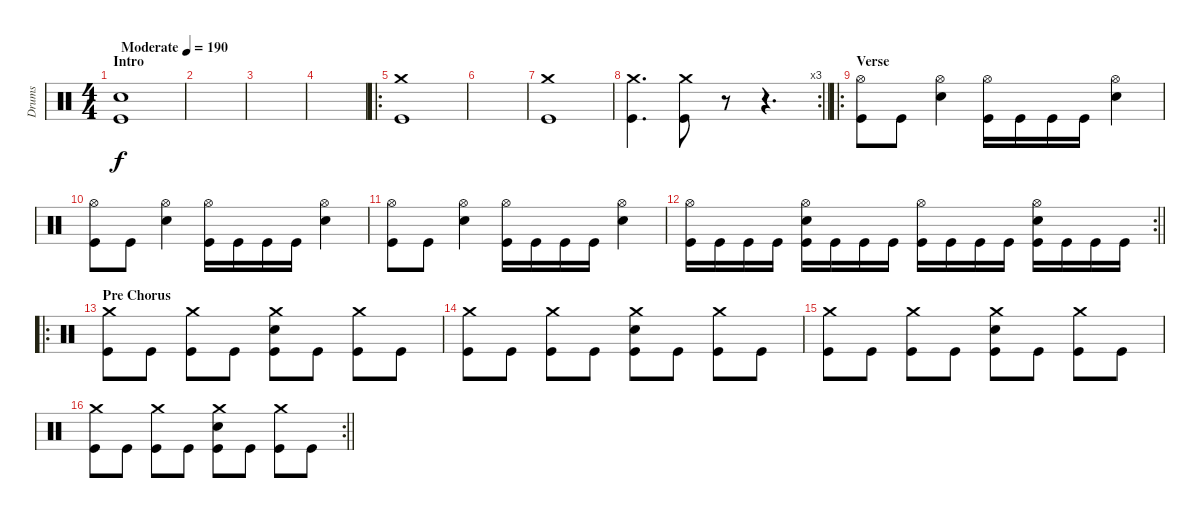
\track ("Drums" "Drums") {instrument percussion}
\staff {score}
\articulation defaults
\ts (4 4)
\section ("" "Intro")
\tempo (190 "Moderate")
\clef neutral
\ks c
("Snare (hit) 2" "Kick (hit)").1{dy f} |
|
|
|
\ro
("Crash medium (hit)" "Kick (hit)").1 |
|
("Crash medium (hit)" "Kick (hit)").1 |
\rc 3
\barLineRight lightlight
("Crash medium (hit)" "Kick (hit)").4{d} ("Crash medium (hit)" "Kick (hit)").8 r.8 r.4{d} |
\ro
\section ("" "Verse")
("Hi-Hat (open)" "Kick (hit)").8 "Kick (hit)".8 ("Hi-Hat (open)" "Snare (hit) 2").4 ("Hi-Hat (open)" "Kick (hit)").16 "Kick (hit)".16 "Kick (hit)".16 "Kick (hit)".16 ("Hi-Hat (open)" "Snare (hit) 2").4 |
("Hi-Hat (open)" "Kick (hit)").8 "Kick (hit)".8 ("Hi-Hat (open)" "Snare (hit) 2").4 ("Hi-Hat (open)" "Kick (hit)").16 "Kick (hit)".16 "Kick (hit)".16 "Kick (hit)".16 ("Hi-Hat (open)" "Snare (hit) 2").4 |
("Hi-Hat (open)" "Kick (hit)").8 "Kick (hit)".8 ("Hi-Hat (open)" "Snare (hit) 2").4 ("Hi-Hat (open)" "Kick (hit)").16 "Kick (hit)".16 "Kick (hit)".16 "Kick (hit)".16 ("Hi-Hat (open)" "Snare (hit) 2").4 |
\rc 2
\barLineRight lightlight
("Hi-Hat (open)" "Kick (hit)").16 "Kick (hit)".16 "Kick (hit)".16 "Kick (hit)".16 ("Hi-Hat (open)" "Snare (hit) 2" "Kick (hit)").16 "Kick (hit)".16 "Kick (hit)".16 "Kick (hit)".16 ("Hi-Hat (open)" "Kick (hit)").16 "Kick (hit)".16 "Kick (hit)".16 "Kick (hit)".16 ("Hi-Hat (open)" "Snare (hit) 2" "Kick (hit)").16 "Kick (hit)".16 "Kick (hit)".16 "Kick (hit)".16 |
\ro
\section ("" "Pre Chorus")
("Crash medium (hit)" "Kick (hit)").8 "Kick (hit)".8 ("Crash medium (hit)" "Kick (hit)").8 "Kick (hit)".8 ("Crash medium (hit)" "Snare (hit) 2" "Kick (hit)").8 "Kick (hit)".8 ("Crash medium (hit)" "Kick (hit)").8 "Kick (hit)".8 |
("Crash medium (hit)" "Kick (hit)").8 "Kick (hit)".8 ("Crash medium (hit)" "Kick (hit)").8 "Kick (hit)".8 ("Crash medium (hit)" "Snare (hit) 2" "Kick (hit)").8 "Kick (hit)".8 ("Crash medium (hit)" "Kick (hit)").8 "Kick (hit)".8 |
("Crash medium (hit)" "Kick (hit)").8 "Kick (hit)".8 ("Crash medium (hit)" "Kick (hit)").8 "Kick (hit)".8 ("Crash medium (hit)" "Snare (hit) 2" "Kick (hit)").8 "Kick (hit)".8 ("Crash medium (hit)" "Kick (hit)").8 "Kick (hit)".8 |
\rc 2
\barLineRight lightlight
("Crash medium (hit)" "Kick (hit)").8 "Kick (hit)".8 ("Crash medium (hit)" "Kick (hit)").8 "Kick (hit)".8 ("Crash medium (hit)" "Snare (hit) 2" "Kick (hit)").8 "Kick (hit)".8 ("Crash medium (hit)" "Kick (hit)").8 "Kick (hit)".8
